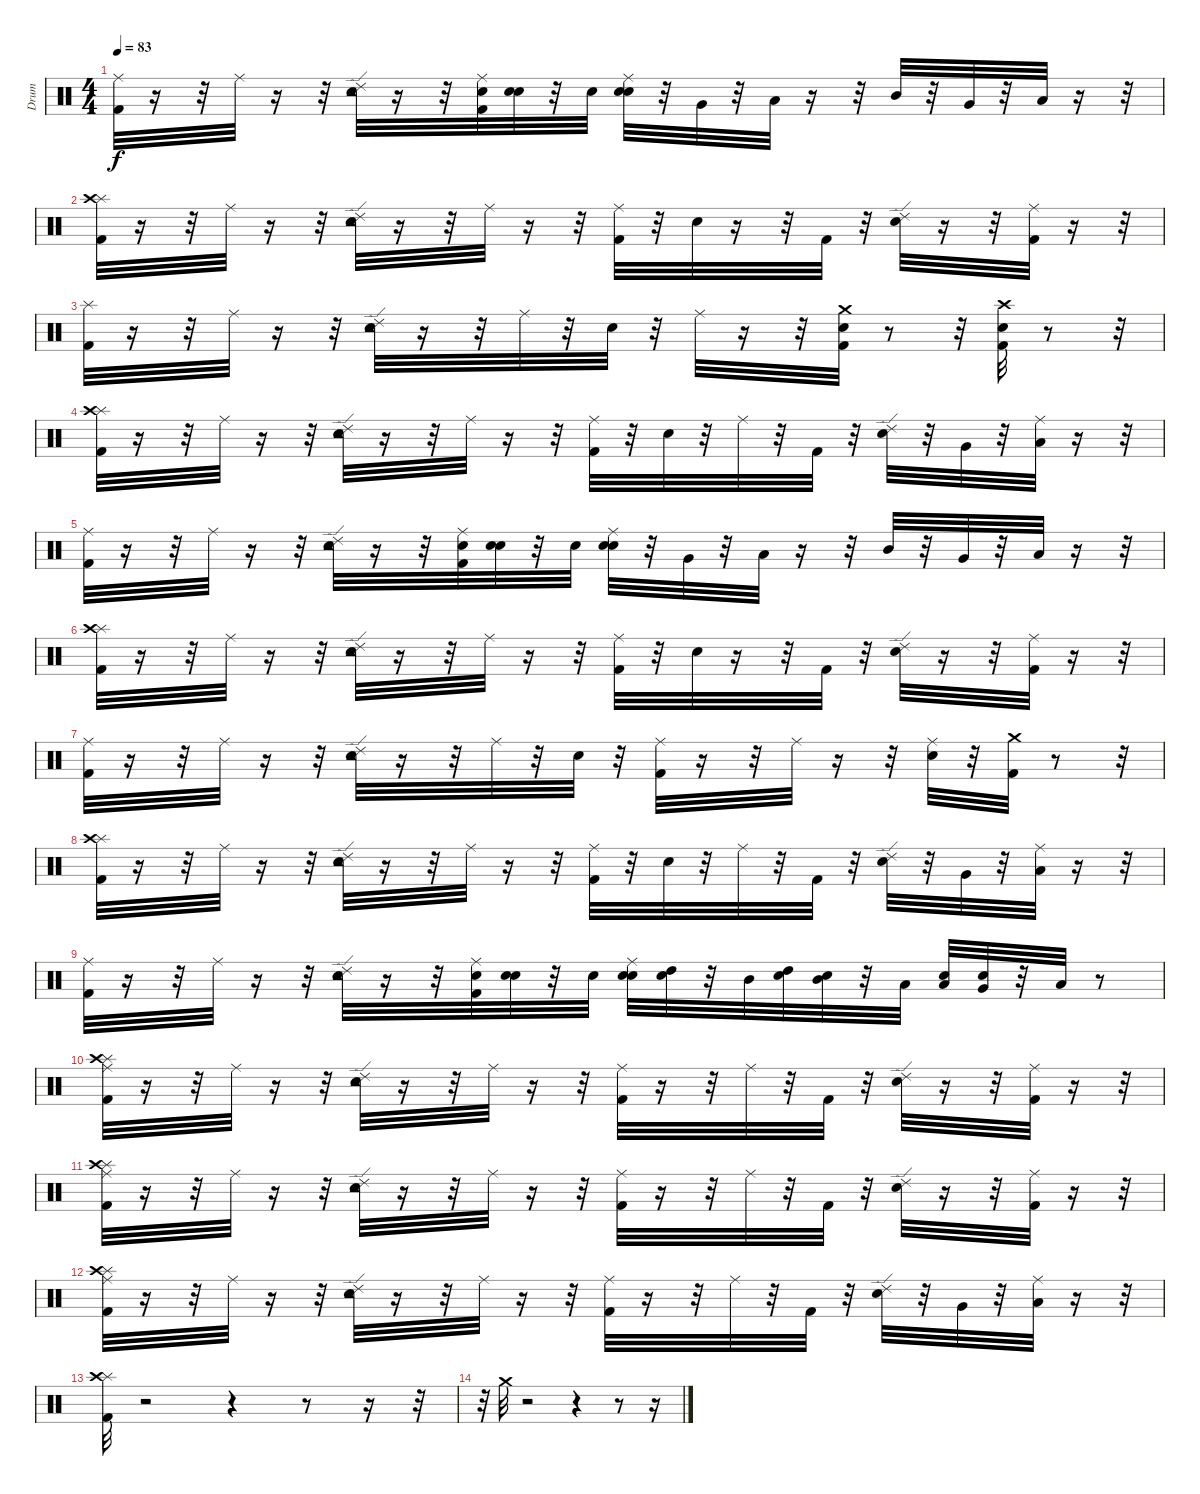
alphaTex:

\track ("Drum" "Drum") {instrument percussion}
\staff {score}
\articulation defaults
\ts (4 4)
\tempo 83
\clef neutral
\ks c
("Ride (middle)" "Kick (hit) 2").32{dy f} r.16 r.32 "Ride (middle)".32 r.16 r.32 ("Ride (edge) 2" "Tambourine (hit)" "Electric Snare (hit)").32 r.16 r.32 ("Ride (middle)" "Electric Snare (hit)" "Kick (hit) 2").32 ("Snare (hit)" "Electric Snare (hit)").32 r.32 "Electric Snare (hit)".32 ("Snare (hit)" "Ride (middle)" "Electric Snare (hit)").32 r.32 "Very Low Tom (hit)".32 r.32 "Low Floor Tom (hit)".32 r.16 r.32 "Mid Tom (hit)".32 r.32 "Very Low Tom (hit)".32 r.32 "Low Floor Tom (hit)".32 r.16 r.32 |
("Splash (hit)" "Crash high (hit)" "Kick (hit) 2").32 r.16 r.32 "Ride (middle)".32 r.16 r.32 ("Ride (edge) 2" "Tambourine (hit)" "Electric Snare (hit)").32 r.16 r.32 "Ride (middle)".32 r.16 r.32 ("Ride (middle)" "Kick (hit) 2").32 r.32 "Electric Snare (hit)".32 r.16 r.32 "Kick (hit) 2".32 r.32 ("Ride (edge) 2" "Electric Snare (hit)").32 r.16 r.32 ("Ride (middle)" "Kick (hit) 2").32 r.16 r.32 |
("Splash (hit)" "Kick (hit) 2").32 r.16 r.32 "Ride (middle)".32 r.16 r.32 ("Ride (edge) 2" "Tambourine (hit)" "Electric Snare (hit)").32 r.16 r.32 "Ride (middle)".32 r.32 "Electric Snare (hit)".32 r.32 "Ride (middle)".32 r.16 r.32 ("Crash medium (hit)" "Electric Snare (hit)" "Kick (hit) 2").32 r.8 r.32 ("Crash high (hit)" "Electric Snare (hit)" "Kick (hit) 2").32 r.8 r.32 |
("Splash (hit)" "Crash high (hit)" "Kick (hit) 2").32 r.16 r.32 "Ride (middle)".32 r.16 r.32 ("Ride (edge) 2" "Tambourine (hit)" "Electric Snare (hit)").32 r.16 r.32 "Ride (middle)".32 r.16 r.32 ("Ride (middle)" "Kick (hit) 2").32 r.32 "Electric Snare (hit)".32 r.32 "Ride (middle)".32 r.32 "Kick (hit) 2".32 r.32 ("Ride (edge) 2" "Electric Snare (hit)").32 r.32 "Very Low Tom (hit)".32 r.32 ("Ride (middle)" "Low Floor Tom (hit)").32 r.16 r.32 |
("Ride (middle)" "Kick (hit) 2").32 r.16 r.32 "Ride (middle)".32 r.16 r.32 ("Ride (edge) 2" "Tambourine (hit)" "Electric Snare (hit)").32 r.16 r.32 ("Ride (middle)" "Electric Snare (hit)" "Kick (hit) 2").32 ("Snare (hit)" "Electric Snare (hit)").32 r.32 "Electric Snare (hit)".32 ("Snare (hit)" "Ride (middle)" "Electric Snare (hit)").32 r.32 "Very Low Tom (hit)".32 r.32 "Low Floor Tom (hit)".32 r.16 r.32 "Mid Tom (hit)".32 r.32 "Very Low Tom (hit)".32 r.32 "Low Floor Tom (hit)".32 r.16 r.32 |
("Splash (hit)" "Crash high (hit)" "Kick (hit) 2").32 r.16 r.32 "Ride (middle)".32 r.16 r.32 ("Ride (edge) 2" "Tambourine (hit)" "Electric Snare (hit)").32 r.16 r.32 "Ride (middle)".32 r.16 r.32 ("Ride (middle)" "Kick (hit) 2").32 r.32 "Electric Snare (hit)".32 r.16 r.32 "Kick (hit) 2".32 r.32 ("Ride (edge) 2" "Electric Snare (hit)").32 r.16 r.32 ("Ride (middle)" "Kick (hit) 2").32 r.16 r.32 |
("Ride (middle)" "Kick (hit) 2").32 r.16 r.32 "Ride (middle)".32 r.16 r.32 ("Ride (edge) 2" "Tambourine (hit)" "Electric Snare (hit)").32 r.16 r.32 "Ride (middle)".32 r.32 "Electric Snare (hit)".32 r.32 ("Ride (middle)" "Kick (hit) 2").32 r.16 r.32 "Ride (middle)".32 r.16 r.32 ("Ride (middle)" "Electric Snare (hit)").32 r.32 ("Crash medium (hit)" "Kick (hit) 2").32 r.8 r.32 |
("Splash (hit)" "Crash high (hit)" "Kick (hit) 2").32 r.16 r.32 "Ride (middle)".32 r.16 r.32 ("Ride (edge) 2" "Tambourine (hit)" "Electric Snare (hit)").32 r.16 r.32 "Ride (middle)".32 r.16 r.32 ("Ride (middle)" "Kick (hit) 2").32 r.32 "Electric Snare (hit)".32 r.32 "Ride (middle)".32 r.32 "Kick (hit) 2".32 r.32 ("Ride (edge) 2" "Electric Snare (hit)").32 r.32 "Very Low Tom (hit)".32 r.32 ("Ride (middle)" "Low Floor Tom (hit)").32 r.16 r.32 |
("Ride (middle)" "Kick (hit) 2").32 r.16 r.32 "Ride (middle)".32 r.16 r.32 ("Ride (edge) 2" "Tambourine (hit)" "Electric Snare (hit)").32 r.16 r.32 ("Ride (middle)" "Electric Snare (hit)" "Kick (hit) 2").32 ("Snare (hit)" "Electric Snare (hit)").32 r.32 "Electric Snare (hit)".32 ("Snare (hit)" "Ride (middle)" "Electric Snare (hit)").32 ("Snare (hit)" "High Tom (hit)").32 r.32 "Mid Tom (hit)".32 ("Snare (hit)" "High Tom (hit)").32 ("Snare (hit)" "Mid Tom (hit)").32 r.32 "Low Tom (hit)".32 ("Snare (hit)" "Low Tom (hit)").32 ("Snare (hit)" "Very Low Tom (hit)").32 r.32 "Low Floor Tom (hit)".32 r.8 |
("Ride (middle)" "Splash (hit)" "Crash high (hit)" "Kick (hit) 2").32 r.16 r.32 "Ride (middle)".32 r.16 r.32 ("Ride (edge) 2" "Tambourine (hit)" "Electric Snare (hit)").32 r.16 r.32 "Ride (middle)".32 r.16 r.32 ("Ride (middle)" "Kick (hit) 2").32 r.16 r.32 "Ride (middle)".32 r.32 "Kick (hit) 2".32 r.32 ("Ride (edge) 2" "Electric Snare (hit)").32 r.16 r.32 ("Ride (middle)" "Kick (hit) 2").32 r.16 r.32 |
("Ride (middle)" "Splash (hit)" "Crash high (hit)" "Kick (hit) 2").32 r.16 r.32 "Ride (middle)".32 r.16 r.32 ("Ride (edge) 2" "Tambourine (hit)" "Electric Snare (hit)").32 r.16 r.32 "Ride (middle)".32 r.16 r.32 ("Ride (middle)" "Kick (hit) 2").32 r.16 r.32 "Ride (middle)".32 r.32 "Kick (hit) 2".32 r.32 ("Ride (edge) 2" "Electric Snare (hit)").32 r.16 r.32 ("Ride (middle)" "Kick (hit) 2").32 r.16 r.32 |
("Ride (middle)" "Splash (hit)" "Crash high (hit)" "Kick (hit) 2").32 r.16 r.32 "Ride (middle)".32 r.16 r.32 ("Ride (edge) 2" "Tambourine (hit)" "Electric Snare (hit)").32 r.16 r.32 "Ride (middle)".32 r.16 r.32 ("Ride (middle)" "Kick (hit) 2").32 r.16 r.32 "Ride (middle)".32 r.32 "Kick (hit) 2".32 r.32 ("Ride (edge) 2" "Electric Snare (hit)").32 r.32 "Very Low Tom (hit)".32 r.32 ("Ride (middle)" "Low Floor Tom (hit)").32 r.16 r.32 |
("Splash (hit)" "Crash high (hit)" "Kick (hit) 2").32 r.2 r.4 r.8 r.16 r.32 |
r.32 "Crash medium (hit)".32 r.2 r.4 r.8 r.16
